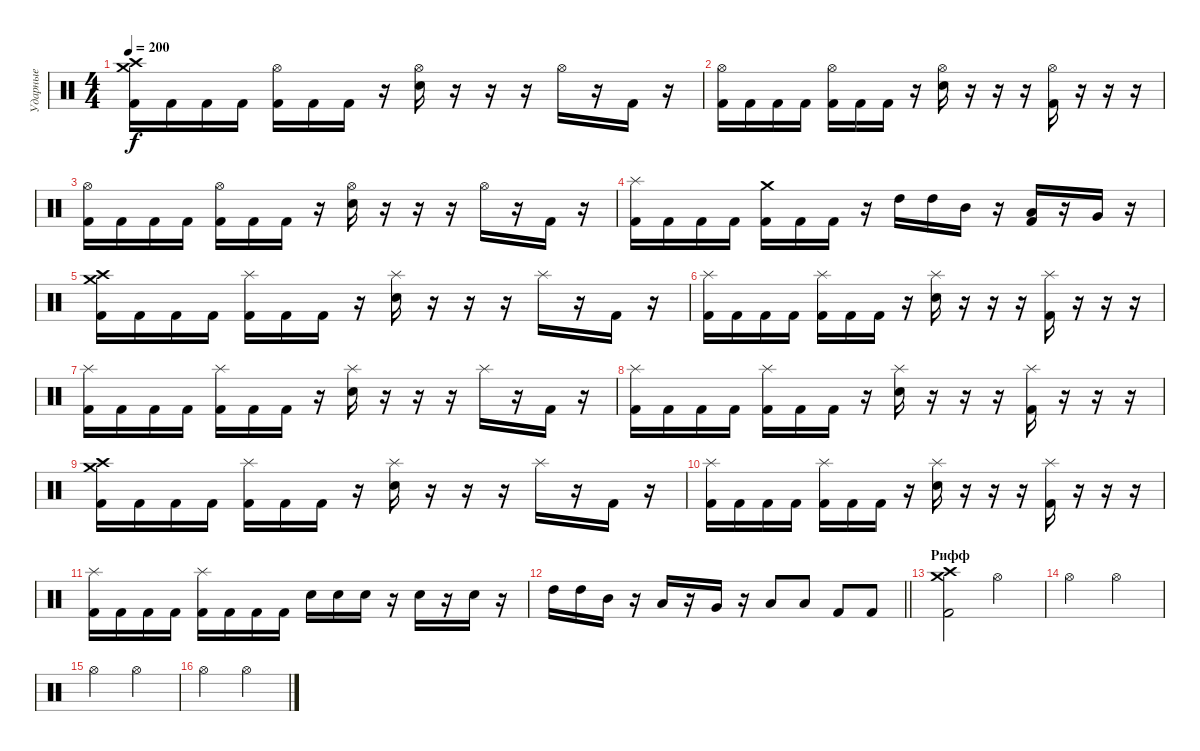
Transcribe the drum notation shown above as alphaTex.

\track ("Ударные" "Ударные") {instrument percussion}
\staff {score}
\articulation defaults
\ts (4 4)
\tempo 200
\clef neutral
\ks c
("Kick (hit) 2" "Crash high (hit)" "Crash medium (hit)").16{dy f} "Kick (hit) 2".16 "Kick (hit) 2".16 "Kick (hit) 2".16 ("Kick (hit) 2" "Hi-Hat (open)").16 "Kick (hit) 2".16 "Kick (hit) 2".16 r.16 ("Electric Snare (hit)" "Hi-Hat (open)").16 r.16 r.16 r.16 "Hi-Hat (open)".16 r.16 "Kick (hit) 2".16 r.16 |
("Kick (hit) 2" "Hi-Hat (open)").16 "Kick (hit) 2".16 "Kick (hit) 2".16 "Kick (hit) 2".16 ("Kick (hit) 2" "Hi-Hat (open)").16 "Kick (hit) 2".16 "Kick (hit) 2".16 r.16 ("Electric Snare (hit)" "Hi-Hat (open)").16 r.16 r.16 r.16 ("Kick (hit) 2" "Hi-Hat (open)").16 r.16 r.16 r.16 |
("Kick (hit) 2" "Hi-Hat (open)").16 "Kick (hit) 2".16 "Kick (hit) 2".16 "Kick (hit) 2".16 ("Kick (hit) 2" "Hi-Hat (open)").16 "Kick (hit) 2".16 "Kick (hit) 2".16 r.16 ("Electric Snare (hit)" "Hi-Hat (open)").16 r.16 r.16 r.16 "Hi-Hat (open)".16 r.16 "Kick (hit) 2".16 r.16 |
("Kick (hit) 2" "Splash (hit)").16 "Kick (hit) 2".16 "Kick (hit) 2".16 "Kick (hit) 2".16 ("Kick (hit) 2" "Crash medium (hit)").16 "Kick (hit) 2".16 "Kick (hit) 2".16 r.16 "High Tom (hit)".16 "High Tom (hit)".16 "Mid Tom (hit)".16 r.16 ("Kick (hit) 2" "Low Tom (hit)").16 r.16 "Very Low Tom (hit)".16 r.16 |
("Kick (hit) 2" "Crash high (hit)" "Crash medium (hit)").16 "Kick (hit) 2".16 "Kick (hit) 2".16 "Kick (hit) 2".16 ("Kick (hit) 2" "Splash (hit)").16 "Kick (hit) 2".16 "Kick (hit) 2".16 r.16 ("Electric Snare (hit)" "Splash (hit)").16 r.16 r.16 r.16 "Splash (hit)".16 r.16 "Kick (hit) 2".16 r.16 |
("Kick (hit) 2" "Splash (hit)").16 "Kick (hit) 2".16 "Kick (hit) 2".16 "Kick (hit) 2".16 ("Kick (hit) 2" "Splash (hit)").16 "Kick (hit) 2".16 "Kick (hit) 2".16 r.16 ("Electric Snare (hit)" "Splash (hit)").16 r.16 r.16 r.16 ("Kick (hit) 2" "Splash (hit)").16 r.16 r.16 r.16 |
("Kick (hit) 2" "Splash (hit)").16 "Kick (hit) 2".16 "Kick (hit) 2".16 "Kick (hit) 2".16 ("Kick (hit) 2" "Splash (hit)").16 "Kick (hit) 2".16 "Kick (hit) 2".16 r.16 ("Electric Snare (hit)" "Splash (hit)").16 r.16 r.16 r.16 "Splash (hit)".16 r.16 "Kick (hit) 2".16 r.16 |
("Kick (hit) 2" "Splash (hit)").16 "Kick (hit) 2".16 "Kick (hit) 2".16 "Kick (hit) 2".16 ("Kick (hit) 2" "Splash (hit)").16 "Kick (hit) 2".16 "Kick (hit) 2".16 r.16 ("Electric Snare (hit)" "Splash (hit)").16 r.16 r.16 r.16 ("Kick (hit) 2" "Splash (hit)").16 r.16 r.16 r.16 |
("Kick (hit) 2" "Crash high (hit)" "Crash medium (hit)").16 "Kick (hit) 2".16 "Kick (hit) 2".16 "Kick (hit) 2".16 ("Kick (hit) 2" "Splash (hit)").16 "Kick (hit) 2".16 "Kick (hit) 2".16 r.16 ("Electric Snare (hit)" "Splash (hit)").16 r.16 r.16 r.16 "Splash (hit)".16 r.16 "Kick (hit) 2".16 r.16 |
("Kick (hit) 2" "Splash (hit)").16 "Kick (hit) 2".16 "Kick (hit) 2".16 "Kick (hit) 2".16 ("Kick (hit) 2" "Splash (hit)").16 "Kick (hit) 2".16 "Kick (hit) 2".16 r.16 ("Electric Snare (hit)" "Splash (hit)").16 r.16 r.16 r.16 ("Kick (hit) 2" "Splash (hit)").16 r.16 r.16 r.16 |
("Kick (hit) 2" "Splash (hit)").16 "Kick (hit) 2".16 "Kick (hit) 2".16 "Kick (hit) 2".16 ("Kick (hit) 2" "Splash (hit)").16 "Kick (hit) 2".16 "Kick (hit) 2".16 "Kick (hit) 2".16 "Electric Snare (hit)".16 "Electric Snare (hit)".16 "Electric Snare (hit)".16 r.16 "Electric Snare (hit)".16 r.16 "Electric Snare (hit)".16 r.16 |
\barLineRight lightlight "High Tom (hit)".16 "High Tom (hit)".16 "Mid Tom (hit)".16
r.16 "Low Tom (hit)".16 r.16 "Very Low Tom (hit)".16 r.16 "Low Floor Tom (hit)".8 "Low Floor Tom (hit)".8 "Kick (hit) 2".8 "Kick (hit) 2".8 |
\section ("" "Рифф")
("Kick (hit) 2" "Crash medium (hit)" "Crash high (hit)").2 "Hi-Hat (open)".2 |
"Hi-Hat (open)".2 "Hi-Hat (open)".2 |
"Hi-Hat (open)".2 "Hi-Hat (open)".2 |
"Hi-Hat (open)".2 "Hi-Hat (open)".2
